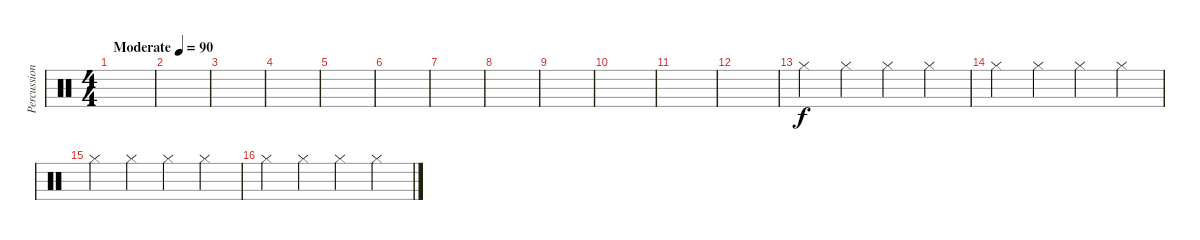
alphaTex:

\track ("Percussion" "Percussion") {instrument percussion}
\staff {score}
\articulation defaults
\ts (4 4)
\tempo (90 "Moderate")
\clef neutral
\ks c
|
|
|
|
|
|
|
|
|
|
|
|
"Hi-Hat (closed)".4 "Hi-Hat (closed)".4 "Hi-Hat (closed)".4 "Hi-Hat (closed)".4 |
"Hi-Hat (closed)".4 "Hi-Hat (closed)".4 "Hi-Hat (closed)".4 "Hi-Hat (closed)".4 |
"Hi-Hat (closed)".4 "Hi-Hat (closed)".4 "Hi-Hat (closed)".4 "Hi-Hat (closed)".4 |
"Hi-Hat (closed)".4 "Hi-Hat (closed)".4 "Hi-Hat (closed)".4 "Hi-Hat (closed)".4
